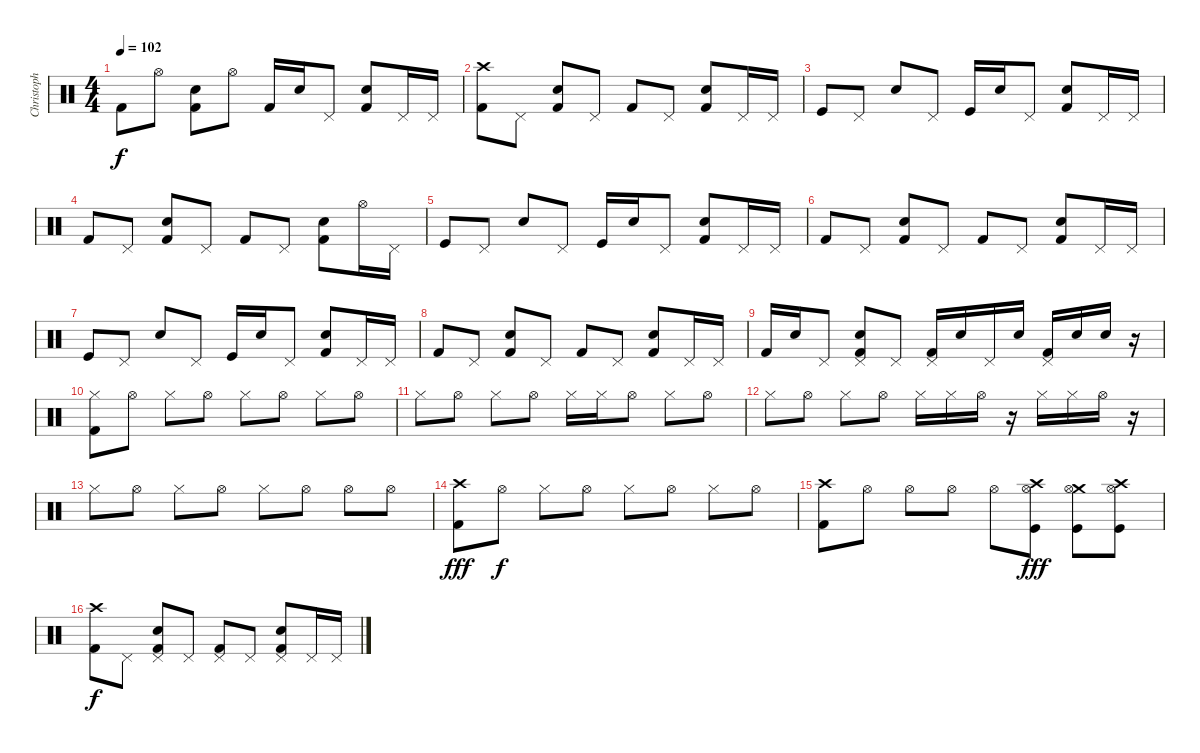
\track ("Christoph Schneider" "Christoph ") {instrument percussion}
\staff {score}
\articulation defaults
\ts (4 4)
\tempo 102
\clef neutral
\ks c "Kick (hit) 2".8{dy f} "Hi-Hat (open)".8
("Snare (hit) 2" "Kick (hit) 2").8 "Hi-Hat (open)".8 "Kick (hit) 2".16 "Snare (hit) 2".16 "Pedal Hi-Hat (hit)".8 ("Snare (hit) 2" "Kick (hit) 2").8 "Pedal Hi-Hat (hit)".16 "Pedal Hi-Hat (hit)".16 |
("Crash high (hit)" "Kick (hit) 2").8 "Pedal Hi-Hat (hit)".8 ("Snare (hit) 2" "Kick (hit) 2").8 "Pedal Hi-Hat (hit)".8 "Kick (hit) 2".8 "Pedal Hi-Hat (hit)".8 ("Snare (hit) 2" "Kick (hit) 2").8 "Pedal Hi-Hat (hit)".16 "Pedal Hi-Hat (hit)".16 |
"Kick (hit)".8 "Pedal Hi-Hat (hit)".8 "Snare (hit) 2".8 "Pedal Hi-Hat (hit)".8 "Kick (hit)".16 "Snare (hit) 2".16 "Pedal Hi-Hat (hit)".8 ("Snare (hit) 2" "Kick (hit) 2").8 "Pedal Hi-Hat (hit)".16 "Pedal Hi-Hat (hit)".16 |
"Kick (hit) 2".8 "Pedal Hi-Hat (hit)".8 ("Snare (hit) 2" "Kick (hit) 2").8 "Pedal Hi-Hat (hit)".8 "Kick (hit) 2".8 "Pedal Hi-Hat (hit)".8 ("Snare (hit) 2" "Kick (hit) 2").8 "Hi-Hat (open)".16 "Pedal Hi-Hat (hit)".16 |
"Kick (hit)".8 "Pedal Hi-Hat (hit)".8 "Snare (hit) 2".8 "Pedal Hi-Hat (hit)".8 "Kick (hit)".16 "Snare (hit) 2".16 "Pedal Hi-Hat (hit)".8 ("Snare (hit) 2" "Kick (hit) 2").8 "Pedal Hi-Hat (hit)".16 "Pedal Hi-Hat (hit)".16 |
"Kick (hit) 2".8 "Pedal Hi-Hat (hit)".8 ("Snare (hit) 2" "Kick (hit) 2").8 "Pedal Hi-Hat (hit)".8 "Kick (hit) 2".8 "Pedal Hi-Hat (hit)".8 ("Snare (hit) 2" "Kick (hit) 2").8 "Pedal Hi-Hat (hit)".16 "Pedal Hi-Hat (hit)".16 |
"Kick (hit)".8 "Pedal Hi-Hat (hit)".8 "Snare (hit) 2".8 "Pedal Hi-Hat (hit)".8 "Kick (hit)".16 "Snare (hit) 2".16 "Pedal Hi-Hat (hit)".8 ("Snare (hit) 2" "Kick (hit) 2").8 "Pedal Hi-Hat (hit)".16 "Pedal Hi-Hat (hit)".16 |
"Kick (hit) 2".8 "Pedal Hi-Hat (hit)".8 ("Snare (hit) 2" "Kick (hit) 2").8 "Pedal Hi-Hat (hit)".8 "Kick (hit) 2".8 "Pedal Hi-Hat (hit)".8 ("Snare (hit) 2" "Kick (hit) 2").8 "Pedal Hi-Hat (hit)".16 "Pedal Hi-Hat (hit)".16 |
"Kick (hit) 2".16 "Snare (hit) 2".16 "Pedal Hi-Hat (hit)".8 ("Pedal Hi-Hat (hit)" "Snare (hit) 2" "Kick (hit) 2").8 "Pedal Hi-Hat (hit)".8 ("Pedal Hi-Hat (hit)" "Kick (hit) 2").16 "Snare (hit) 2".16 "Pedal Hi-Hat (hit)".16 "Snare (hit) 2".16 ("Pedal Hi-Hat (hit)" "Kick (hit) 2").16 "Snare (hit) 2".16 "Snare (hit) 2".16 r.16 |
("Hi-Hat (closed)" "Kick (hit) 2").8 "Hi-Hat (open)".8 "Hi-Hat (closed)".8 "Hi-Hat (open)".8 "Hi-Hat (closed)".8 "Hi-Hat (open)".8 "Hi-Hat (closed)".8 "Hi-Hat (open)".8 |
"Hi-Hat (closed)".8 "Hi-Hat (open)".8 "Hi-Hat (closed)".8 "Hi-Hat (open)".8 "Hi-Hat (closed)".16 "Hi-Hat (closed)".16 "Hi-Hat (open)".8 "Hi-Hat (closed)".8 "Hi-Hat (open)".8 |
"Hi-Hat (closed)".8 "Hi-Hat (open)".8 "Hi-Hat (closed)".8 "Hi-Hat (open)".8 "Hi-Hat (closed)".16 "Hi-Hat (closed)".16 "Hi-Hat (open)".16 r.16 "Hi-Hat (closed)".16 "Hi-Hat (closed)".16 "Hi-Hat (open)".16 r.16 |
"Hi-Hat (closed)".8 "Hi-Hat (open)".8 "Hi-Hat (closed)".8 "Hi-Hat (open)".8 "Hi-Hat (closed)".8 "Hi-Hat (open)".8 "Hi-Hat (open)".8 "Hi-Hat (open)".8 |
("Crash high (hit)" "Kick (hit) 2").8{dy fff} "Hi-Hat (open)".8{dy f} "Hi-Hat (closed)".8 "Hi-Hat (open)".8 "Hi-Hat (closed)".8 "Hi-Hat (open)".8 "Hi-Hat (closed)".8 "Hi-Hat (open)".8 |
("Crash high (hit)" "Kick (hit) 2").8 "Hi-Hat (open)".8 "Hi-Hat (open)".8 "Hi-Hat (open)".8 "Hi-Hat (open)".8 ("Crash high (hit)" "Hi-Hat (open)" "Kick (hit)").8{dy fff} ("Crash medium (hit)" "Hi-Hat (open)" "Kick (hit)").8 ("Crash high (hit)" "Hi-Hat (open)" "Kick (hit)").8 |
("Crash high (hit)" "Kick (hit) 2").8{dy f} "Pedal Hi-Hat (hit)".8 ("Pedal Hi-Hat (hit)" "Snare (hit) 2" "Kick (hit) 2").8 "Pedal Hi-Hat (hit)".8 ("Pedal Hi-Hat (hit)" "Kick (hit) 2").8 "Pedal Hi-Hat (hit)".8 ("Pedal Hi-Hat (hit)" "Snare (hit) 2" "Kick (hit) 2").8 "Pedal Hi-Hat (hit)".16 "Pedal Hi-Hat (hit)".16
